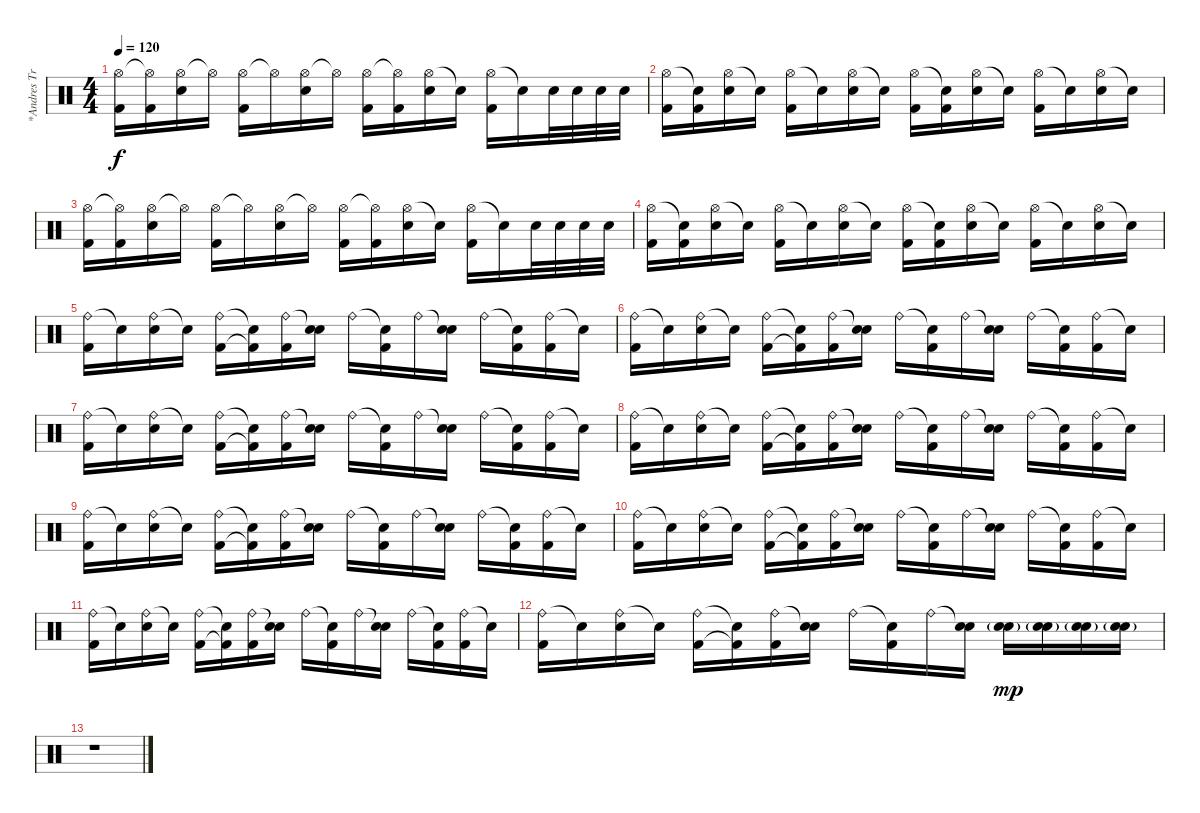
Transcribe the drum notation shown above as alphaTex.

\track ("*Andres Trujillo" "*Andres Tr") {instrument percussion}
\staff {score}
\articulation defaults
\ts (4 4)
\tempo 120
\clef neutral
\ks c
("Hi-Hat (open)" "Kick (hit) 2").16{dy f} ("Hi-Hat (open)"{t} "Kick (hit) 2").16 ("Hi-Hat (open)" "Electric Snare (hit)").16 "Hi-Hat (open)"{t}.16 ("Hi-Hat (open)" "Kick (hit) 2").16 "Hi-Hat (open)"{t}.16 ("Hi-Hat (open)" "Electric Snare (hit)").16 "Hi-Hat (open)"{t}.16 ("Hi-Hat (open)" "Kick (hit) 2").16 ("Hi-Hat (open)"{t} "Kick (hit) 2").16 ("Hi-Hat (open)" "Electric Snare (hit)").16 "Snare (hit)"{t}.16 ("Hi-Hat (open)" "Kick (hit) 2").16 "Snare (hit)"{t}.16 "Electric Snare (hit)".32 "Electric Snare (hit)".32 "Electric Snare (hit)".32 "Electric Snare (hit)".32 |
("Hi-Hat (open)" "Kick (hit) 2").16 ("Snare (hit)"{t} "Kick (hit) 2").16 ("Hi-Hat (open)" "Electric Snare (hit)").16 "Snare (hit)"{t}.16 ("Hi-Hat (open)" "Kick (hit) 2").16 "Snare (hit)"{t}.16 ("Hi-Hat (open)" "Electric Snare (hit)").16 "Snare (hit)"{t}.16 ("Hi-Hat (open)" "Kick (hit) 2").16 ("Snare (hit)"{t} "Kick (hit) 2").16 ("Hi-Hat (open)" "Electric Snare (hit)").16 "Snare (hit)"{t}.16 ("Hi-Hat (open)" "Kick (hit) 2").16 "Snare (hit)"{t}.16 ("Hi-Hat (open)" "Electric Snare (hit)").16 "Snare (hit)"{t}.16 |
("Hi-Hat (open)" "Kick (hit) 2").16 ("Hi-Hat (open)"{t} "Kick (hit) 2").16 ("Hi-Hat (open)" "Electric Snare (hit)").16 "Hi-Hat (open)"{t}.16 ("Hi-Hat (open)" "Kick (hit) 2").16 "Hi-Hat (open)"{t}.16 ("Hi-Hat (open)" "Electric Snare (hit)").16 "Hi-Hat (open)"{t}.16 ("Hi-Hat (open)" "Kick (hit) 2").16 ("Hi-Hat (open)"{t} "Kick (hit) 2").16 ("Hi-Hat (open)" "Electric Snare (hit)").16 "Snare (hit)"{t}.16 ("Hi-Hat (open)" "Kick (hit) 2").16 "Snare (hit)"{t}.16 "Electric Snare (hit)".32 "Electric Snare (hit)".32 "Electric Snare (hit)".32 "Electric Snare (hit)".32 |
("Hi-Hat (open)" "Kick (hit) 2").16 ("Snare (hit)"{t} "Kick (hit) 2").16 ("Hi-Hat (open)" "Electric Snare (hit)").16 "Snare (hit)"{t}.16 ("Hi-Hat (open)" "Kick (hit) 2").16 "Snare (hit)"{t}.16 ("Hi-Hat (open)" "Electric Snare (hit)").16 "Snare (hit)"{t}.16 ("Hi-Hat (open)" "Kick (hit) 2").16 ("Snare (hit)"{t} "Kick (hit) 2").16 ("Hi-Hat (open)" "Electric Snare (hit)").16 "Snare (hit)"{t}.16 ("Hi-Hat (open)" "Kick (hit) 2").16 "Snare (hit)"{t}.16 ("Hi-Hat (open)" "Electric Snare (hit)").16 "Snare (hit)"{t}.16 |
("Ride (bell)" "Kick (hit) 2").16 "Snare (hit)"{t}.16 ("Ride (bell)" "Electric Snare (hit)").16 "Snare (hit)"{t}.16 ("Ride (bell)" "Kick (hit) 2").16 ("Snare (hit)"{t} "Kick (hit) 2"{t}).16 ("Ride (bell)" "Kick (hit) 2").16 ("Snare (hit)"{t} "Electric Snare (hit)").16 "Ride (bell)".16 ("Snare (hit)"{t} "Kick (hit) 2").16 "Ride (bell)".16 ("Snare (hit)"{t} "Electric Snare (hit)").16 "Ride (bell)".16 ("Snare (hit)"{t} "Kick (hit) 2").16 ("Ride (bell)" "Kick (hit) 2").16 "Snare (hit)"{t}.16 |
("Ride (bell)" "Kick (hit) 2").16 "Snare (hit)"{t}.16 ("Ride (bell)" "Electric Snare (hit)").16 "Snare (hit)"{t}.16 ("Ride (bell)" "Kick (hit) 2").16 ("Snare (hit)"{t} "Kick (hit) 2"{t}).16 ("Ride (bell)" "Kick (hit) 2").16 ("Snare (hit)"{t} "Electric Snare (hit)").16 "Ride (bell)".16 ("Snare (hit)"{t} "Kick (hit) 2").16 "Ride (bell)".16 ("Snare (hit)"{t} "Electric Snare (hit)").16 "Ride (bell)".16 ("Snare (hit)"{t} "Kick (hit) 2").16 ("Ride (bell)" "Kick (hit) 2").16 "Snare (hit)"{t}.16 |
("Ride (bell)" "Kick (hit) 2").16 "Snare (hit)"{t}.16 ("Ride (bell)" "Electric Snare (hit)").16 "Snare (hit)"{t}.16 ("Ride (bell)" "Kick (hit) 2").16 ("Snare (hit)"{t} "Kick (hit) 2"{t}).16 ("Ride (bell)" "Kick (hit) 2").16 ("Snare (hit)"{t} "Electric Snare (hit)").16 "Ride (bell)".16 ("Snare (hit)"{t} "Kick (hit) 2").16 "Ride (bell)".16 ("Snare (hit)"{t} "Electric Snare (hit)").16 "Ride (bell)".16 ("Snare (hit)"{t} "Kick (hit) 2").16 ("Ride (bell)" "Kick (hit) 2").16 "Snare (hit)"{t}.16 |
("Ride (bell)" "Kick (hit) 2").16 "Snare (hit)"{t}.16 ("Ride (bell)" "Electric Snare (hit)").16 "Snare (hit)"{t}.16 ("Ride (bell)" "Kick (hit) 2").16 ("Snare (hit)"{t} "Kick (hit) 2"{t}).16 ("Ride (bell)" "Kick (hit) 2").16 ("Snare (hit)"{t} "Electric Snare (hit)").16 "Ride (bell)".16 ("Snare (hit)"{t} "Kick (hit) 2").16 "Ride (bell)".16 ("Snare (hit)"{t} "Electric Snare (hit)").16 "Ride (bell)".16 ("Snare (hit)"{t} "Kick (hit) 2").16 ("Ride (bell)" "Kick (hit) 2").16 "Snare (hit)"{t}.16 |
("Ride (bell)" "Kick (hit) 2").16 "Snare (hit)"{t}.16 ("Ride (bell)" "Electric Snare (hit)").16 "Snare (hit)"{t}.16 ("Ride (bell)" "Kick (hit) 2").16 ("Snare (hit)"{t} "Kick (hit) 2"{t}).16 ("Ride (bell)" "Kick (hit) 2").16 ("Snare (hit)"{t} "Electric Snare (hit)").16 "Ride (bell)".16 ("Snare (hit)"{t} "Kick (hit) 2").16 "Ride (bell)".16 ("Snare (hit)"{t} "Electric Snare (hit)").16 "Ride (bell)".16 ("Snare (hit)"{t} "Kick (hit) 2").16 ("Ride (bell)" "Kick (hit) 2").16 "Snare (hit)"{t}.16 |
("Ride (bell)" "Kick (hit) 2").16 "Snare (hit)"{t}.16 ("Ride (bell)" "Electric Snare (hit)").16 "Snare (hit)"{t}.16 ("Ride (bell)" "Kick (hit) 2").16 ("Snare (hit)"{t} "Kick (hit) 2"{t}).16 ("Ride (bell)" "Kick (hit) 2").16 ("Snare (hit)"{t} "Electric Snare (hit)").16 "Ride (bell)".16 ("Snare (hit)"{t} "Kick (hit) 2").16 "Ride (bell)".16 ("Snare (hit)"{t} "Electric Snare (hit)").16 "Ride (bell)".16 ("Snare (hit)"{t} "Kick (hit) 2").16 ("Ride (bell)" "Kick (hit) 2").16 "Snare (hit)"{t}.16 |
("Ride (bell)" "Kick (hit) 2").16 "Snare (hit)"{t}.16 ("Ride (bell)" "Electric Snare (hit)").16 "Snare (hit)"{t}.16 ("Ride (bell)" "Kick (hit) 2").16 ("Snare (hit)"{t} "Kick (hit) 2"{t}).16 ("Ride (bell)" "Kick (hit) 2").16 ("Snare (hit)"{t} "Electric Snare (hit)").16 "Ride (bell)".16 ("Snare (hit)"{t} "Kick (hit) 2").16 "Ride (bell)".16 ("Snare (hit)"{t} "Electric Snare (hit)").16 "Ride (bell)".16 ("Snare (hit)"{t} "Kick (hit) 2").16 ("Ride (bell)" "Kick (hit) 2").16 "Snare (hit)"{t}.16 |
("Ride (bell)" "Kick (hit) 2").16 "Snare (hit)"{t}.16 ("Ride (bell)" "Electric Snare (hit)").16 "Snare (hit)"{t}.16 ("Ride (bell)" "Kick (hit) 2").16 ("Snare (hit)"{t} "Kick (hit) 2"{t}).16 ("Ride (bell)" "Kick (hit) 2").16 ("Snare (hit)"{t} "Electric Snare (hit)").16 "Ride (bell)".16 ("Snare (hit)"{t} "Kick (hit) 2").16 "Ride (bell)".16 ("Snare (hit)"{t} "Electric Snare (hit)").16 ("Electric Snare (hit)"{g} "Electric Snare (hit)").16{dy mp} ("Electric Snare (hit)"{g} "Electric Snare (hit)").16 ("Electric Snare (hit)"{g} "Electric Snare (hit)").16 ("Electric Snare (hit)"{g} "Electric Snare (hit)").16 |
r.1
